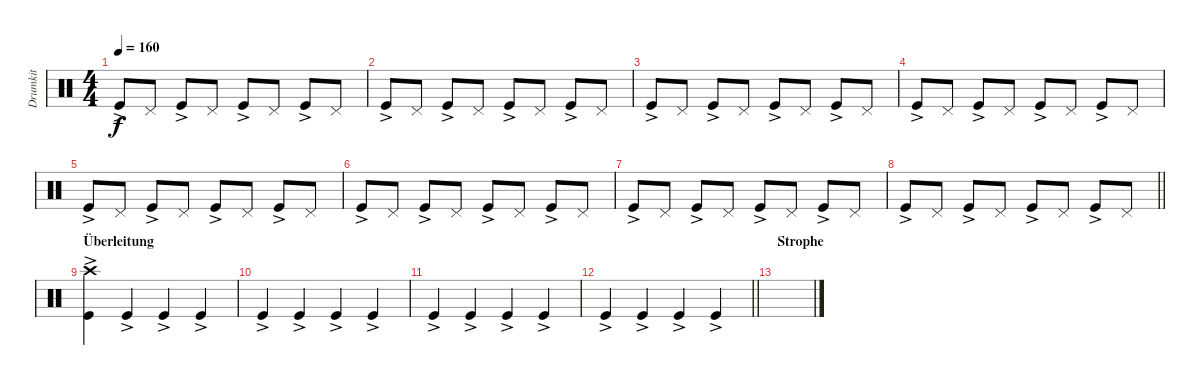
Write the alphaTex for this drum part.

\track ("Drumkit" "Drumkit") {instrument percussion}
\staff {score}
\articulation defaults
\ts (4 4)
\tempo 160
\clef neutral
\ks c "Kick (hit)"{ac}.8{dy f} "Pedal Hi-Hat (hit)".8 "Kick (hit)"{ac}.8 "Pedal Hi-Hat (hit)".8 "Kick (hit)"{ac}.8 "Pedal Hi-Hat (hit)".8 "Kick (hit)"{ac}.8 "Pedal Hi-Hat (hit)".8
|
"Kick (hit)"{ac}.8 "Pedal Hi-Hat (hit)".8 "Kick (hit)"{ac}.8 "Pedal Hi-Hat (hit)".8 "Kick (hit)"{ac}.8 "Pedal Hi-Hat (hit)".8 "Kick (hit)"{ac}.8 "Pedal Hi-Hat (hit)".8 |
"Kick (hit)"{ac}.8 "Pedal Hi-Hat (hit)".8 "Kick (hit)"{ac}.8 "Pedal Hi-Hat (hit)".8 "Kick (hit)"{ac}.8 "Pedal Hi-Hat (hit)".8 "Kick (hit)"{ac}.8 "Pedal Hi-Hat (hit)".8 |
"Kick (hit)"{ac}.8 "Pedal Hi-Hat (hit)".8 "Kick (hit)"{ac}.8 "Pedal Hi-Hat (hit)".8 "Kick (hit)"{ac}.8 "Pedal Hi-Hat (hit)".8 "Kick (hit)"{ac}.8 "Pedal Hi-Hat (hit)".8 |
"Kick (hit)"{ac}.8 "Pedal Hi-Hat (hit)".8 "Kick (hit)"{ac}.8 "Pedal Hi-Hat (hit)".8 "Kick (hit)"{ac}.8 "Pedal Hi-Hat (hit)".8 "Kick (hit)"{ac}.8 "Pedal Hi-Hat (hit)".8 |
"Kick (hit)"{ac}.8 "Pedal Hi-Hat (hit)".8 "Kick (hit)"{ac}.8 "Pedal Hi-Hat (hit)".8 "Kick (hit)"{ac}.8 "Pedal Hi-Hat (hit)".8 "Kick (hit)"{ac}.8 "Pedal Hi-Hat (hit)".8 |
"Kick (hit)"{ac}.8 "Pedal Hi-Hat (hit)".8 "Kick (hit)"{ac}.8 "Pedal Hi-Hat (hit)".8 "Kick (hit)"{ac}.8 "Pedal Hi-Hat (hit)".8 "Kick (hit)"{ac}.8 "Pedal Hi-Hat (hit)".8 |
\barLineRight lightlight "Kick (hit)"{ac}.8 "Pedal Hi-Hat (hit)".8 "Kick (hit)"{ac}.8 "Pedal Hi-Hat (hit)".8 "Kick (hit)"{ac}.8 "Pedal Hi-Hat (hit)".8 "Kick (hit)"{ac}.8 "Pedal Hi-Hat (hit)".8
|
\section ("" "Überleitung")
("Kick (hit)"{ac} "Crash high (hit)").4 "Kick (hit)"{ac}.4 "Kick (hit)"{ac}.4 "Kick (hit)"{ac}.4 |
"Kick (hit)"{ac}.4 "Kick (hit)"{ac}.4 "Kick (hit)"{ac}.4 "Kick (hit)"{ac}.4 |
"Kick (hit)"{ac}.4 "Kick (hit)"{ac}.4 "Kick (hit)"{ac}.4 "Kick (hit)"{ac}.4 |
\barLineRight lightlight "Kick (hit)"{ac}.4 "Kick (hit)"{ac}.4 "Kick (hit)"{ac}.4 "Kick (hit)"{ac}.4
|
\section ("" "Strophe")
